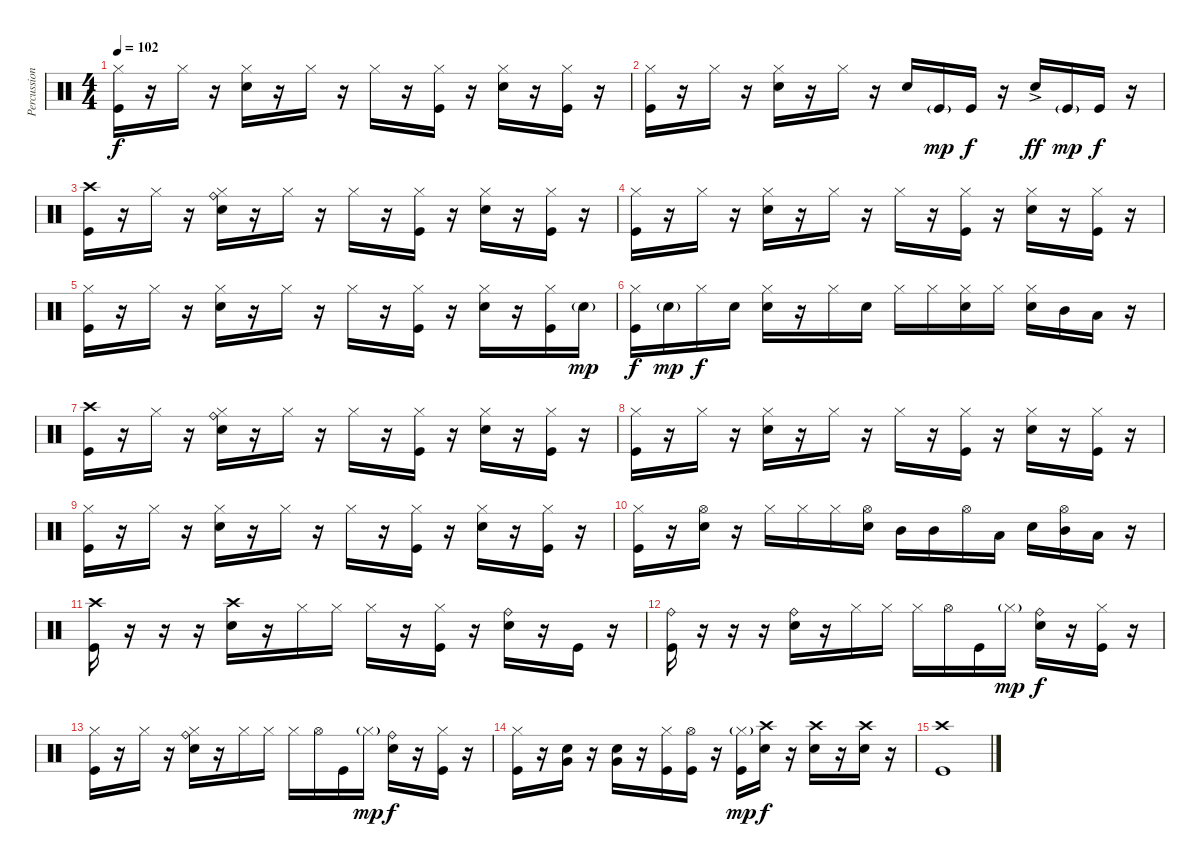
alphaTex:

\track ("Percussion" "Percussion") {instrument percussion}
\staff {score}
\articulation defaults
\ts (4 4)
\tempo 102
\clef neutral
\ks c
("Hi-Hat (closed)" "Kick (hit)").16{dy f} r.16 "Hi-Hat (closed)".16 r.16 ("Hi-Hat (closed)" "Snare (hit) 2").16 r.16 "Hi-Hat (closed)".16 r.16 "Hi-Hat (closed)".16 r.16 ("Hi-Hat (closed)" "Kick (hit)").16 r.16 ("Hi-Hat (closed)" "Snare (hit) 2").16 r.16 ("Hi-Hat (closed)" "Kick (hit)").16 r.16 |
("Hi-Hat (closed)" "Kick (hit)").16 r.16 "Hi-Hat (closed)".16 r.16 ("Hi-Hat (closed)" "Snare (hit) 2").16 r.16 "Hi-Hat (closed)".16 r.16 "Snare (hit) 2".16 "Kick (hit)"{g}.16{dy mp} "Kick (hit)".16{dy f} r.16 "Snare (hit) 2"{ac}.16{dy ff} "Kick (hit)"{g}.16{dy mp} "Kick (hit)".16{dy f} r.16 |
("Crash high (hit)" "Kick (hit)").16 r.16 "Hi-Hat (closed)".16 r.16 ("Ride (bell)" "Hi-Hat (closed)" "Snare (hit) 2").16 r.16 "Hi-Hat (closed)".16 r.16 "Hi-Hat (closed)".16 r.16 ("Hi-Hat (closed)" "Kick (hit)").16 r.16 ("Hi-Hat (closed)" "Snare (hit) 2").16 r.16 ("Hi-Hat (closed)" "Kick (hit)").16 r.16 |
("Hi-Hat (closed)" "Kick (hit)").16 r.16 "Hi-Hat (closed)".16 r.16 ("Hi-Hat (closed)" "Snare (hit) 2").16 r.16 "Hi-Hat (closed)".16 r.16 "Hi-Hat (closed)".16 r.16 ("Hi-Hat (closed)" "Kick (hit)").16 r.16 ("Hi-Hat (closed)" "Snare (hit) 2").16 r.16 ("Hi-Hat (closed)" "Kick (hit)").16 r.16 |
("Hi-Hat (closed)" "Kick (hit)").16 r.16 "Hi-Hat (closed)".16 r.16 ("Hi-Hat (closed)" "Snare (hit) 2").16 r.16 "Hi-Hat (closed)".16 r.16 "Hi-Hat (closed)".16 r.16 ("Hi-Hat (closed)" "Kick (hit)").16 r.16 ("Hi-Hat (closed)" "Snare (hit) 2").16 r.16 ("Hi-Hat (closed)" "Kick (hit)").16 "Snare (hit) 2"{g}.16{dy mp} |
("Hi-Hat (closed)" "Kick (hit)").16{dy f} "Snare (hit) 2"{g}.16{dy mp} "Hi-Hat (closed)".16{dy f} "Snare (hit) 2".16 ("Hi-Hat (closed)" "Snare (hit) 2").16 r.16 "Hi-Hat (closed)".16 "Snare (hit) 2".16 "Hi-Hat (closed)".16 "Hi-Hat (closed)".16 ("Hi-Hat (closed)" "Snare (hit) 2").16 "Hi-Hat (closed)".16 ("Hi-Hat (closed)" "Snare (hit) 2").16 "Mid Tom (hit)".16 "Low Tom (hit)".16 r.16 |
("Crash high (hit)" "Kick (hit)").16 r.16 "Hi-Hat (closed)".16 r.16 ("Ride (bell)" "Hi-Hat (closed)" "Snare (hit) 2").16 r.16 "Hi-Hat (closed)".16 r.16 "Hi-Hat (closed)".16 r.16 ("Hi-Hat (closed)" "Kick (hit)").16 r.16 ("Hi-Hat (closed)" "Snare (hit) 2").16 r.16 ("Hi-Hat (closed)" "Kick (hit)").16 r.16 |
("Hi-Hat (closed)" "Kick (hit)").16 r.16 "Hi-Hat (closed)".16 r.16 ("Hi-Hat (closed)" "Snare (hit) 2").16 r.16 "Hi-Hat (closed)".16 r.16 "Hi-Hat (closed)".16 r.16 ("Hi-Hat (closed)" "Kick (hit)").16 r.16 ("Hi-Hat (closed)" "Snare (hit) 2").16 r.16 ("Hi-Hat (closed)" "Kick (hit)").16 r.16 |
("Hi-Hat (closed)" "Kick (hit)").16 r.16 "Hi-Hat (closed)".16 r.16 ("Hi-Hat (closed)" "Snare (hit) 2").16 r.16 "Hi-Hat (closed)".16 r.16 "Hi-Hat (closed)".16 r.16 ("Hi-Hat (closed)" "Kick (hit)").16 r.16 ("Hi-Hat (closed)" "Snare (hit) 2").16 r.16 ("Hi-Hat (closed)" "Kick (hit)").16 r.16 |
("Hi-Hat (closed)" "Kick (hit)").16 r.16 ("Hi-Hat (open)" "Snare (hit) 2").16 r.16 "Hi-Hat (closed)".16 "Hi-Hat (closed)".16 "Hi-Hat (closed)".16 ("Hi-Hat (open)" "Snare (hit) 2").16 "Mid Tom (hit)".16 "Mid Tom (hit)".16 "Hi-Hat (open)".16 "Low Tom (hit)".16 "Snare (hit) 2".16 ("Hi-Hat (open)" "Mid Tom (hit)").16 "Low Tom (hit)".16 r.16 |
("Crash high (hit)" "Kick (hit)").16 r.16 r.16 r.16 ("Crash high (hit)" "Snare (hit) 2").16 r.16 "Hi-Hat (closed)".16 "Hi-Hat (closed)".16 "Hi-Hat (closed)".16 r.16 ("Hi-Hat (closed)" "Kick (hit)").16 r.16 ("Ride (bell)" "Snare (hit) 2").16 r.16 "Kick (hit)".16 r.16 |
("Ride (bell)" "Kick (hit)").16 r.16 r.16 r.16 ("Ride (bell)" "Snare (hit) 2").16 r.16 "Hi-Hat (closed)".16 "Hi-Hat (closed)".16 "Hi-Hat (closed)".16 "Hi-Hat (open)".16 "Kick (hit)".16 "Hi-Hat (closed)"{g}.16{dy mp} ("Ride (bell)" "Snare (hit) 2").16{dy f} r.16 ("Hi-Hat (closed)" "Kick (hit)").16 r.16 |
("Hi-Hat (closed)" "Kick (hit)").16 r.16 "Hi-Hat (closed)".16 r.16 ("Ride (bell)" "Hi-Hat (closed)" "Snare (hit) 2").16 r.16 "Hi-Hat (closed)".16 "Hi-Hat (closed)".16 "Hi-Hat (closed)".16 "Hi-Hat (open)".16 "Kick (hit)".16 "Hi-Hat (closed)"{g}.16{dy mp} ("Ride (bell)" "Snare (hit) 2").16{dy f} r.16 ("Hi-Hat (closed)" "Kick (hit)").16 r.16 |
("Hi-Hat (closed)" "Kick (hit)").16 r.16 ("Very Low Tom (hit)" "Snare (hit) 2").16 r.16 ("Very Low Tom (hit)" "Snare (hit) 2").16 r.16 ("Hi-Hat (closed)" "Kick (hit)").16 ("Hi-Hat (open)" "Kick (hit)").16 r.16 ("Hi-Hat (closed)"{g} "Kick (hit)").16{dy mp} ("Crash high (hit)" "Snare (hit) 2").16{dy f} r.16 ("Crash high (hit)" "Snare (hit) 2").16 r.16 ("Crash high (hit)" "Snare (hit) 2").16 r.16 |
("Crash high (hit)" "Kick (hit)").1
